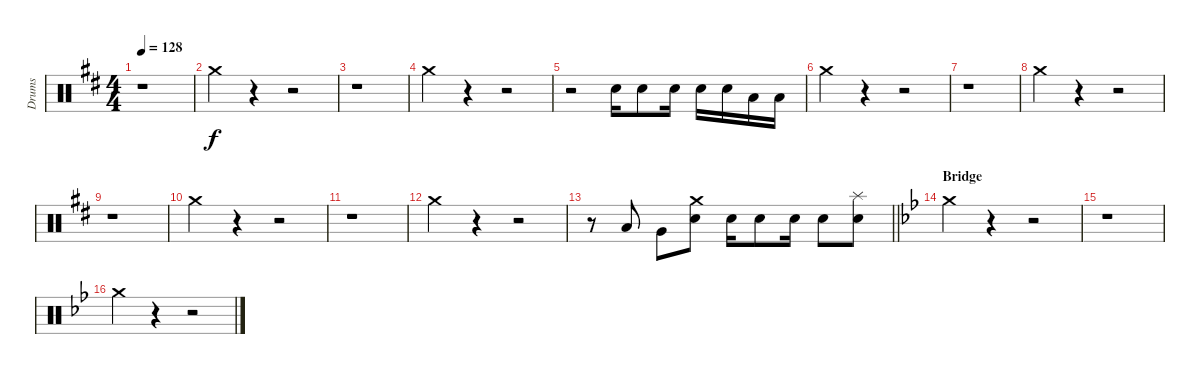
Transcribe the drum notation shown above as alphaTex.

\track ("Drums" "Drums") {instrument percussion}
\staff {score}
\articulation defaults
\ts (4 4)
\tempo 128
\clef neutral
\ks d
r.1{dy f} |
"Crash medium (hit)".4 r.4 r.2 |
r.1 |
"Crash medium (hit)".4 r.4 r.2 |
r.2 "Electric Snare (hit)".16 "Electric Snare (hit)".8 "Electric Snare (hit)".16 "Electric Snare (hit)".16 "Electric Snare (hit)".16 "Low Floor Tom (hit)".16 "Low Floor Tom (hit)".16 |
"Crash medium (hit)".4 r.4 r.2 |
r.1 |
"Crash medium (hit)".4 r.4 r.2 |
r.1 |
"Crash medium (hit)".4 r.4 r.2 |
r.1 |
"Crash medium (hit)".4 r.4 r.2 |
\barLineRight lightlight
r.8 "Low Tom (hit)".8 "Very Low Tom (hit)".8 ("Crash medium (hit)" "Electric Snare (hit)").8 "Electric Snare (hit)".16 "Electric Snare (hit)".8 "Electric Snare (hit)".16 "Electric Snare (hit)".8 ("Splash (hit)" "Electric Snare (hit)").8 |
\section ("" "Bridge")
\ks gminor "Crash medium (hit)".4
r.4 r.2 |
r.1 |
"Crash medium (hit)".4 r.4 r.2
